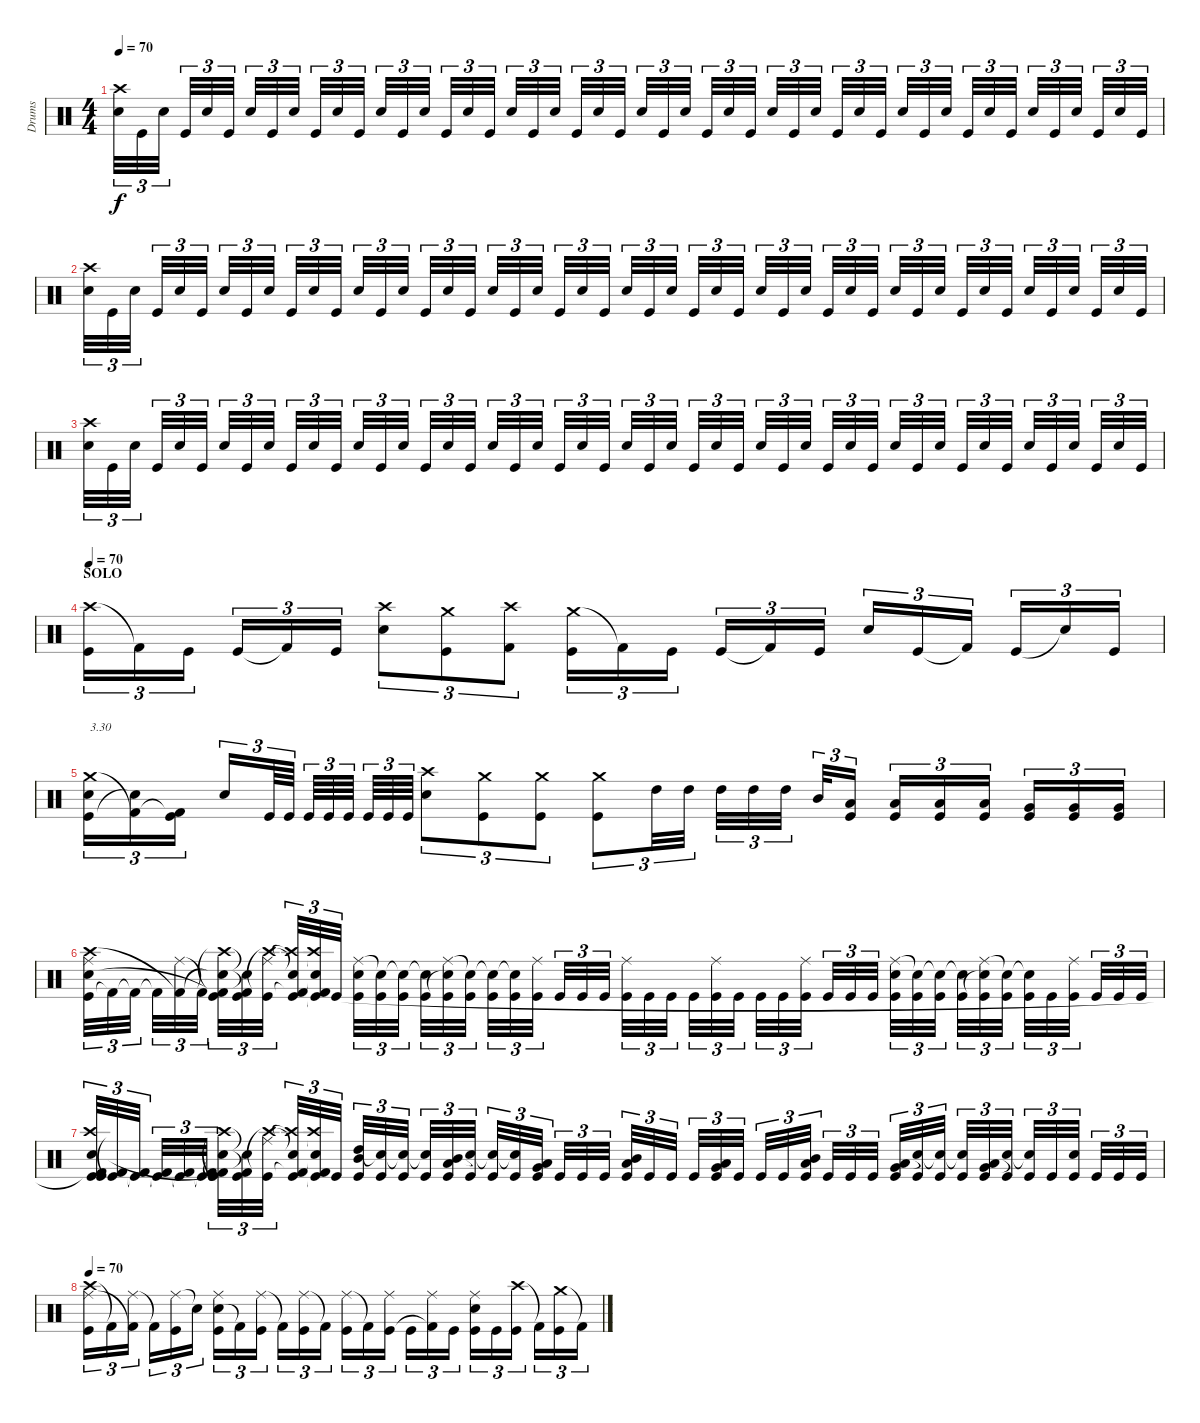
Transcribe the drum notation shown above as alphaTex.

\track ("Drums" "Drums") {instrument percussion}
\staff {score}
\articulation defaults
\ts (4 4)
\tempo 70
\clef neutral
\ks c
("Snare (hit) 2" "Crash high (hit)").32{tu (3 2) dy f} "Kick (hit)".32{tu (3 2)} "Snare (hit) 2".32{tu (3 2)} "Kick (hit)".32{tu (3 2)} "Snare (hit) 2".32{tu (3 2)} "Kick (hit)".32{tu (3 2)} "Snare (hit) 2".32{tu (3 2)} "Kick (hit)".32{tu (3 2)} "Snare (hit) 2".32{tu (3 2)} "Kick (hit)".32{tu (3 2)} "Snare (hit) 2".32{tu (3 2)} "Kick (hit)".32{tu (3 2)} "Snare (hit) 2".32{tu (3 2)} "Kick (hit)".32{tu (3 2)} "Snare (hit) 2".32{tu (3 2)} "Kick (hit)".32{tu (3 2)} "Snare (hit) 2".32{tu (3 2)} "Kick (hit)".32{tu (3 2)} "Snare (hit) 2".32{tu (3 2)} "Kick (hit)".32{tu (3 2)} "Snare (hit) 2".32{tu (3 2)} "Kick (hit)".32{tu (3 2)} "Snare (hit) 2".32{tu (3 2)} "Kick (hit)".32{tu (3 2)} "Snare (hit) 2".32{tu (3 2)} "Kick (hit)".32{tu (3 2)} "Snare (hit) 2".32{tu (3 2)} "Kick (hit)".32{tu (3 2)} "Snare (hit) 2".32{tu (3 2)} "Kick (hit)".32{tu (3 2)} "Snare (hit) 2".32{tu (3 2)} "Kick (hit)".32{tu (3 2)} "Snare (hit) 2".32{tu (3 2)} "Kick (hit)".32{tu (3 2)} "Snare (hit) 2".32{tu (3 2)} "Kick (hit)".32{tu (3 2)} "Snare (hit) 2".32{tu (3 2)} "Kick (hit)".32{tu (3 2)} "Snare (hit) 2".32{tu (3 2)} "Kick (hit)".32{tu (3 2)} "Snare (hit) 2".32{tu (3 2)} "Kick (hit)".32{tu (3 2)} "Snare (hit) 2".32{tu (3 2)} "Kick (hit)".32{tu (3 2)} "Snare (hit) 2".32{tu (3 2)} "Kick (hit)".32{tu (3 2)} "Snare (hit) 2".32{tu (3 2)} "Kick (hit)".32{tu (3 2)} |
("Snare (hit) 2" "Crash high (hit)").32{tu (3 2)} "Kick (hit)".32{tu (3 2)} "Snare (hit) 2".32{tu (3 2)} "Kick (hit)".32{tu (3 2)} "Snare (hit) 2".32{tu (3 2)} "Kick (hit)".32{tu (3 2)} "Snare (hit) 2".32{tu (3 2)} "Kick (hit)".32{tu (3 2)} "Snare (hit) 2".32{tu (3 2)} "Kick (hit)".32{tu (3 2)} "Snare (hit) 2".32{tu (3 2)} "Kick (hit)".32{tu (3 2)} "Snare (hit) 2".32{tu (3 2)} "Kick (hit)".32{tu (3 2)} "Snare (hit) 2".32{tu (3 2)} "Kick (hit)".32{tu (3 2)} "Snare (hit) 2".32{tu (3 2)} "Kick (hit)".32{tu (3 2)} "Snare (hit) 2".32{tu (3 2)} "Kick (hit)".32{tu (3 2)} "Snare (hit) 2".32{tu (3 2)} "Kick (hit)".32{tu (3 2)} "Snare (hit) 2".32{tu (3 2)} "Kick (hit)".32{tu (3 2)} "Snare (hit) 2".32{tu (3 2)} "Kick (hit)".32{tu (3 2)} "Snare (hit) 2".32{tu (3 2)} "Kick (hit)".32{tu (3 2)} "Snare (hit) 2".32{tu (3 2)} "Kick (hit)".32{tu (3 2)} "Snare (hit) 2".32{tu (3 2)} "Kick (hit)".32{tu (3 2)} "Snare (hit) 2".32{tu (3 2)} "Kick (hit)".32{tu (3 2)} "Snare (hit) 2".32{tu (3 2)} "Kick (hit)".32{tu (3 2)} "Snare (hit) 2".32{tu (3 2)} "Kick (hit)".32{tu (3 2)} "Snare (hit) 2".32{tu (3 2)} "Kick (hit)".32{tu (3 2)} "Snare (hit) 2".32{tu (3 2)} "Kick (hit)".32{tu (3 2)} "Snare (hit) 2".32{tu (3 2)} "Kick (hit)".32{tu (3 2)} "Snare (hit) 2".32{tu (3 2)} "Kick (hit)".32{tu (3 2)} "Snare (hit) 2".32{tu (3 2)} "Kick (hit)".32{tu (3 2)} |
("Snare (hit) 2" "Crash high (hit)").32{tu (3 2)} "Kick (hit)".32{tu (3 2)} "Snare (hit) 2".32{tu (3 2)} "Kick (hit)".32{tu (3 2)} "Snare (hit) 2".32{tu (3 2)} "Kick (hit)".32{tu (3 2)} "Snare (hit) 2".32{tu (3 2)} "Kick (hit)".32{tu (3 2)} "Snare (hit) 2".32{tu (3 2)} "Kick (hit)".32{tu (3 2)} "Snare (hit) 2".32{tu (3 2)} "Kick (hit)".32{tu (3 2)} "Snare (hit) 2".32{tu (3 2)} "Kick (hit)".32{tu (3 2)} "Snare (hit) 2".32{tu (3 2)} "Kick (hit)".32{tu (3 2)} "Snare (hit) 2".32{tu (3 2)} "Kick (hit)".32{tu (3 2)} "Snare (hit) 2".32{tu (3 2)} "Kick (hit)".32{tu (3 2)} "Snare (hit) 2".32{tu (3 2)} "Kick (hit)".32{tu (3 2)} "Snare (hit) 2".32{tu (3 2)} "Kick (hit)".32{tu (3 2)} "Snare (hit) 2".32{tu (3 2)} "Kick (hit)".32{tu (3 2)} "Snare (hit) 2".32{tu (3 2)} "Kick (hit)".32{tu (3 2)} "Snare (hit) 2".32{tu (3 2)} "Kick (hit)".32{tu (3 2)} "Snare (hit) 2".32{tu (3 2)} "Kick (hit)".32{tu (3 2)} "Snare (hit) 2".32{tu (3 2)} "Kick (hit)".32{tu (3 2)} "Snare (hit) 2".32{tu (3 2)} "Kick (hit)".32{tu (3 2)} "Snare (hit) 2".32{tu (3 2)} "Kick (hit)".32{tu (3 2)} "Snare (hit) 2".32{tu (3 2)} "Kick (hit)".32{tu (3 2)} "Snare (hit) 2".32{tu (3 2)} "Kick (hit)".32{tu (3 2)} "Snare (hit) 2".32{tu (3 2)} "Kick (hit)".32{tu (3 2)} "Snare (hit) 2".32{tu (3 2)} "Kick (hit)".32{tu (3 2)} "Snare (hit) 2".32{tu (3 2)} "Kick (hit)".32{tu (3 2)} |
\section ("" "SOLO")
\tempo 70
("Crash high (hit)" "Kick (hit)").16{tu (3 2)} "Kick (hit) 2"{t}.16{tu (3 2)} "Kick (hit)".16{tu (3 2)} "Kick (hit)".16{tu (3 2)} "Kick (hit) 2"{t}.16{tu (3 2)} "Kick (hit)".16{tu (3 2)} ("Crash high (hit)" "Snare (hit) 2").8{tu (3 2)} ("Crash medium (hit)" "Kick (hit)").8{tu (3 2)} ("Crash high (hit)" "Kick (hit) 2").8{tu (3 2)} ("Crash medium (hit)" "Kick (hit)").16{tu (3 2)} "Kick (hit) 2"{t}.16{tu (3 2)} "Kick (hit)".16{tu (3 2)} "Kick (hit)".16{tu (3 2)} "Kick (hit) 2"{t}.16{tu (3 2)} "Kick (hit)".16{tu (3 2)} "Snare (hit) 2".16{tu (3 2)} "Kick (hit)".16{tu (3 2)} "Kick (hit) 2"{t}.16{tu (3 2)} "Kick (hit)".16{tu (3 2)} "Snare (hit)"{t}.16{tu (3 2)} "Kick (hit)".16{tu (3 2)} |
("Crash medium (hit)" "Kick (hit)" "Snare (hit) 2").16{tu (3 2) txt "3.30"} ("Kick (hit) 2"{t} "Snare (hit) 2"{t}).16{tu (3 2)} ("Kick (hit) 2"{t} "Kick (hit)").16{tu (3 2)} "Snare (hit) 2".16{tu (3 2)} "Kick (hit)".64{tu (3 2)} "Kick (hit)".64{tu (3 2)} "Kick (hit)".64{tu (3 2)} "Kick (hit)".64{tu (3 2)} "Kick (hit)".64{tu (3 2)} "Kick (hit)".64{tu (3 2)} "Kick (hit)".64{tu (3 2)} "Kick (hit)".64{tu (3 2)} ("Crash high (hit)" "Snare (hit) 2").8{tu (3 2)} ("Crash medium (hit)" "Kick (hit)").8{tu (3 2)} ("Crash medium (hit)" "Kick (hit)").8{tu (3 2)} ("Crash medium (hit)" "Kick (hit)").8{tu (3 2)} "High Tom (hit)".32{tu (3 2)} "High Tom (hit)".32{tu (3 2)} "High Tom (hit)".32{tu (3 2)} "High Tom (hit)".32{tu (3 2)} "High Tom (hit)".32{tu (3 2)} "Mid Tom (hit)".32{tu (3 2)} ("Kick (hit)" "Low Tom (hit)").16{tu (3 2)} ("Kick (hit)" "Low Tom (hit)").16{tu (3 2)} ("Kick (hit)" "Low Tom (hit)").16{tu (3 2)} ("Kick (hit)" "Low Tom (hit)").16{tu (3 2)} ("Kick (hit)" "Very Low Tom (hit)").16{tu (3 2)} ("Kick (hit)" "Very Low Tom (hit)").16{tu (3 2)} ("Kick (hit)" "Very Low Tom (hit)").16{tu (3 2)} |
("Kick (hit)" "Crash high (hit)" "Snare (hit) 2" "Ride (middle)").32{tu (3 2)} "Kick (hit) 2"{t}.32{tu (3 2)} "Kick (hit) 2"{t}.32{tu (3 2)} "Kick (hit) 2"{t}.32{tu (3 2)} ("Ride (middle)" "Kick (hit) 2"{t}).32{tu (3 2)} "Kick (hit) 2"{t}.32{tu (3 2)} ("Crash high (hit)"{t} "Snare (hit) 2"{t} "Kick (hit) 2"{t} "Kick (hit)").32{tu (3 2)} ("Snare (hit) 2"{t} "Kick (hit) 2"{t} "Kick (hit)").32{tu (3 2)} ("Ride (middle)" "Crash high (hit)"{t} "Kick (hit)").32{tu (3 2)} ("Crash high (hit)"{t} "Snare (hit) 2"{t} "Kick (hit) 2"{t} "Kick (hit)").32{tu (3 2)} ("Crash high (hit)"{t} "Snare (hit) 2"{t} "Kick (hit) 2"{t} "Kick (hit)").32{tu (3 2)} "Kick (hit)".32{tu (3 2)} ("Ride (middle)" "Snare (hit) 2" "Kick (hit)").32{tu (3 2)} ("Snare (hit)"{t} "Kick (hit)").32{tu (3 2)} ("Snare (hit)"{t} "Kick (hit)").32{tu (3 2)} ("Snare (hit)"{t} "Kick (hit)").32{tu (3 2)} ("Ride (middle)" "Snare (hit)"{t} "Kick (hit)").32{tu (3 2)} ("Snare (hit)"{t} "Kick (hit)").32{tu (3 2)} ("Snare (hit)"{t} "Kick (hit)").32{tu (3 2)} ("Snare (hit)"{t} "Kick (hit)").32{tu (3 2)} ("Ride (middle)" "Kick (hit)").32{tu (3 2)} "Kick (hit)".32{tu (3 2)} "Kick (hit)".32{tu (3 2)} "Kick (hit)".32{tu (3 2)} ("Ride (middle)" "Kick (hit)").32{tu (3 2)} "Kick (hit)".32{tu (3 2)} "Kick (hit)".32{tu (3 2)} "Kick (hit)".32{tu (3 2)} ("Ride (middle)" "Kick (hit)").32{tu (3 2)} "Kick (hit)".32{tu (3 2)} "Kick (hit)".32{tu (3 2)} "Kick (hit)".32{tu (3 2)} ("Ride (middle)" "Kick (hit)").32{tu (3 2)} "Kick (hit)".32{tu (3 2)} "Kick (hit)".32{tu (3 2)} "Kick (hit)".32{tu (3 2)} ("Ride (middle)" "Snare (hit) 2" "Kick (hit)").32{tu (3 2)} ("Snare (hit)"{t} "Kick (hit)").32{tu (3 2)} ("Snare (hit)"{t} "Kick (hit)").32{tu (3 2)} ("Snare (hit)"{t} "Kick (hit)").32{tu (3 2)} ("Ride (middle)" "Snare (hit)"{t} "Kick (hit)").32{tu (3 2)} ("Snare (hit)"{t} "Kick (hit)").32{tu (3 2)} ("Snare (hit)"{t} "Kick (hit)").32{tu (3 2)} "Kick (hit)".32{tu (3 2)} ("Ride (middle)" "Kick (hit)").32{tu (3 2)} "Kick (hit)".32{tu (3 2)} "Kick (hit)".32{tu (3 2)} "Kick (hit)".32{tu (3 2)} |
("Kick (hit)" "Crash high (hit)" "Snare (hit) 2" "Kick (hit) 2"{t} "Kick (hit)").32{tu (3 2)} ("Kick (hit)" "Kick (hit) 2"{t}).32{tu (3 2)} ("Kick (hit)" "Kick (hit) 2"{t}).32{tu (3 2)} ("Kick (hit)" "Kick (hit) 2"{t}).32{tu (3 2)} ("Kick (hit)" "Kick (hit) 2"{t}).32{tu (3 2)} ("Kick (hit)" "Kick (hit) 2"{t}).32{tu (3 2)} ("Crash high (hit)"{t} "Snare (hit) 2"{t} "Kick (hit) 2"{t} "Kick (hit)" "Kick (hit)").32{tu (3 2)} ("Snare (hit) 2"{t} "Kick (hit) 2"{t} "Kick (hit)").32{tu (3 2)} ("Ride (middle)" "Crash high (hit)"{t} "Kick (hit)").32{tu (3 2)} ("Crash high (hit)"{t} "Snare (hit) 2"{t} "Kick (hit) 2"{t} "Kick (hit)").32{tu (3 2)} ("Crash high (hit)"{t} "Snare (hit) 2"{t} "Kick (hit) 2"{t} "Kick (hit)").32{tu (3 2)} "Kick (hit)".32{tu (3 2)} ("High Tom (hit)" "Mid Tom (hit)" "Kick (hit)").32{tu (3 2)} ("Snare (hit)"{t} "Kick (hit)").32{tu (3 2)} ("Snare (hit)"{t} "Kick (hit)").32{tu (3 2)} ("Snare (hit)"{t} "Kick (hit)").32{tu (3 2)} ("Mid Tom (hit)" "Low Tom (hit)" "Kick (hit)").32{tu (3 2)} ("Snare (hit)"{t} "Kick (hit)").32{tu (3 2)} ("Snare (hit)"{t} "Kick (hit)").32{tu (3 2)} ("Snare (hit)"{t} "Kick (hit)").32{tu (3 2)} ("Low Tom (hit)" "Very Low Tom (hit)" "Kick (hit)").32{tu (3 2)} "Kick (hit)".32{tu (3 2)} "Kick (hit)".32{tu (3 2)} "Kick (hit)".32{tu (3 2)} ("Mid Tom (hit)" "Low Tom (hit)" "Kick (hit)").32{tu (3 2)} "Kick (hit)".32{tu (3 2)} "Kick (hit)".32{tu (3 2)} "Kick (hit)".32{tu (3 2)} ("Low Tom (hit)" "Very Low Tom (hit)" "Kick (hit)").32{tu (3 2)} "Kick (hit)".32{tu (3 2)} "Kick (hit)".32{tu (3 2)} "Kick (hit)".32{tu (3 2)} ("Mid Tom (hit)" "Low Tom (hit)" "Kick (hit)").32{tu (3 2)} "Kick (hit)".32{tu (3 2)} "Kick (hit)".32{tu (3 2)} "Kick (hit)".32{tu (3 2)} ("Low Tom (hit)" "Very Low Tom (hit)" "Kick (hit)").32{tu (3 2)} ("Snare (hit)"{t} "Kick (hit)").32{tu (3 2)} ("Snare (hit)"{t} "Kick (hit)").32{tu (3 2)} ("Snare (hit)"{t} "Kick (hit)").32{tu (3 2)} ("Very Low Tom (hit)" "Low Floor Tom (hit)" "Kick (hit)").32{tu (3 2)} ("Snare (hit)"{t} "Kick (hit)").32{tu (3 2)} ("Snare (hit)"{t} "Kick (hit)").32{tu (3 2)} "Kick (hit)".32{tu (3 2)} ("Snare (hit) 2" "Kick (hit)").32{tu (3 2)} "Kick (hit)".32{tu (3 2)} "Kick (hit)".32{tu (3 2)} "Kick (hit)".32{tu (3 2)} |
\tempo 70
("Crash high (hit)" "Ride (middle)" "Kick (hit)").16{tu (3 2)} "Kick (hit) 2"{t}.16{tu (3 2)} ("Ride (middle)" "Kick (hit) 2"{t}).16{tu (3 2)} "Kick (hit) 2"{t}.16{tu (3 2)} ("Ride (middle)" "Kick (hit)").16{tu (3 2)} "Snare (hit)"{t}.16{tu (3 2)} ("Snare (hit) 2" "Ride (middle)" "Kick (hit)").16{tu (3 2)} "Kick (hit) 2"{t}.16{tu (3 2)} ("Ride (middle)" "Kick (hit)").16{tu (3 2)} "Kick (hit) 2"{t}.16{tu (3 2)} ("Ride (middle)" "Kick (hit)").16{tu (3 2)} "Kick (hit) 2"{t}.16{tu (3 2)} ("Ride (middle)" "Kick (hit)").16{tu (3 2)} "Kick (hit) 2"{t}.16{tu (3 2)} ("Ride (middle)" "Kick (hit)").16{tu (3 2)} "Kick (hit)".16{tu (3 2)} ("Ride (middle)" "Kick (hit) 2"{t}).16{tu (3 2)} "Kick (hit)".16{tu (3 2)} ("Snare (hit) 2" "Ride (middle)" "Kick (hit)").16{tu (3 2)} "Kick (hit)".16{tu (3 2)} ("Crash high (hit)" "Kick (hit)").16{tu (3 2)} "Kick (hit) 2"{t}.16{tu (3 2)} ("Crash medium (hit)" "Kick (hit)").16{tu (3 2)} "Kick (hit) 2"{t}.16{tu (3 2)}
